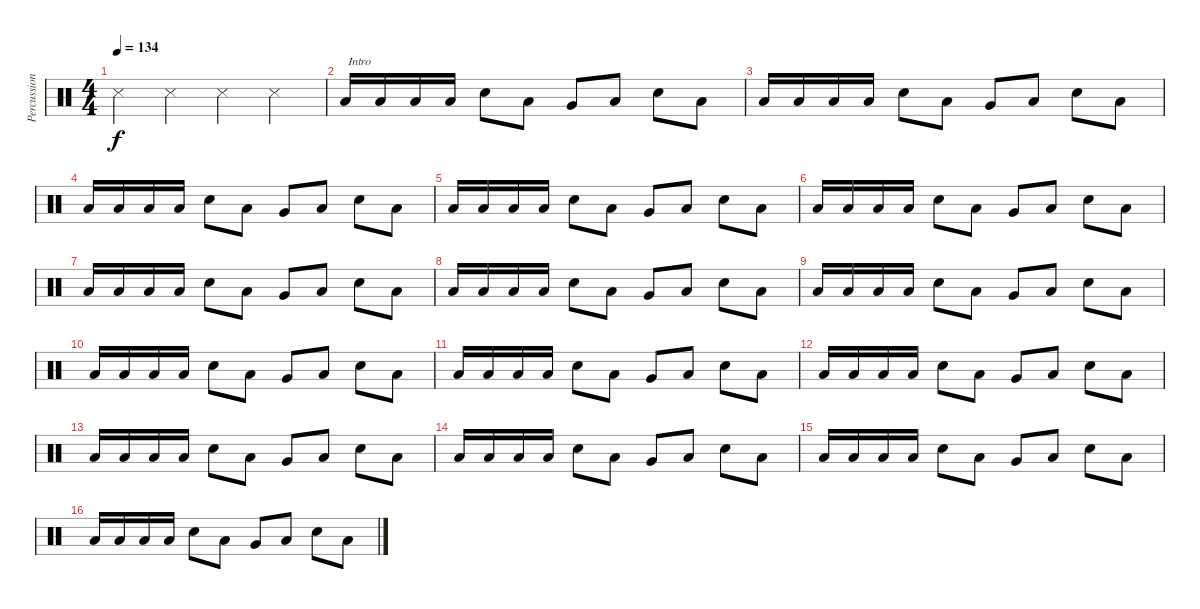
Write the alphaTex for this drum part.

\track ("Percussions" "Percussion") {instrument percussion}
\staff {score}
\articulation defaults
\ts (4 4)
\tempo 134
\clef neutral
\ks c "Metronome (hit)".4{dy f} "Metronome (hit)".4 "Metronome (hit)".4 "Metronome (hit)".4
|
"Low Floor Tom (hit)".16{txt " Intro"} "Low Floor Tom (hit)".16 "Low Floor Tom (hit)".16 "Low Floor Tom (hit)".16 "Electric Snare (hit)".8 "Low Floor Tom (hit)".8 "Very Low Tom (hit)".8 "Low Floor Tom (hit)".8 "Electric Snare (hit)".8 "Low Floor Tom (hit)".8 |
"Low Floor Tom (hit)".16 "Low Floor Tom (hit)".16 "Low Floor Tom (hit)".16 "Low Floor Tom (hit)".16 "Electric Snare (hit)".8 "Low Floor Tom (hit)".8 "Very Low Tom (hit)".8 "Low Floor Tom (hit)".8 "Electric Snare (hit)".8 "Low Floor Tom (hit)".8 |
"Low Floor Tom (hit)".16 "Low Floor Tom (hit)".16 "Low Floor Tom (hit)".16 "Low Floor Tom (hit)".16 "Electric Snare (hit)".8 "Low Floor Tom (hit)".8 "Very Low Tom (hit)".8 "Low Floor Tom (hit)".8 "Electric Snare (hit)".8 "Low Floor Tom (hit)".8 |
"Low Floor Tom (hit)".16 "Low Floor Tom (hit)".16 "Low Floor Tom (hit)".16 "Low Floor Tom (hit)".16 "Electric Snare (hit)".8 "Low Floor Tom (hit)".8 "Very Low Tom (hit)".8 "Low Floor Tom (hit)".8 "Electric Snare (hit)".8 "Low Floor Tom (hit)".8 |
"Low Floor Tom (hit)".16 "Low Floor Tom (hit)".16 "Low Floor Tom (hit)".16 "Low Floor Tom (hit)".16 "Electric Snare (hit)".8 "Low Floor Tom (hit)".8 "Very Low Tom (hit)".8 "Low Floor Tom (hit)".8 "Electric Snare (hit)".8 "Low Floor Tom (hit)".8 |
"Low Floor Tom (hit)".16 "Low Floor Tom (hit)".16 "Low Floor Tom (hit)".16 "Low Floor Tom (hit)".16 "Electric Snare (hit)".8 "Low Floor Tom (hit)".8 "Very Low Tom (hit)".8 "Low Floor Tom (hit)".8 "Electric Snare (hit)".8 "Low Floor Tom (hit)".8 |
"Low Floor Tom (hit)".16 "Low Floor Tom (hit)".16 "Low Floor Tom (hit)".16 "Low Floor Tom (hit)".16 "Electric Snare (hit)".8 "Low Floor Tom (hit)".8 "Very Low Tom (hit)".8 "Low Floor Tom (hit)".8 "Electric Snare (hit)".8 "Low Floor Tom (hit)".8 |
"Low Floor Tom (hit)".16 "Low Floor Tom (hit)".16 "Low Floor Tom (hit)".16 "Low Floor Tom (hit)".16 "Electric Snare (hit)".8 "Low Floor Tom (hit)".8 "Very Low Tom (hit)".8 "Low Floor Tom (hit)".8 "Electric Snare (hit)".8 "Low Floor Tom (hit)".8 |
"Low Floor Tom (hit)".16 "Low Floor Tom (hit)".16 "Low Floor Tom (hit)".16 "Low Floor Tom (hit)".16 "Electric Snare (hit)".8 "Low Floor Tom (hit)".8 "Very Low Tom (hit)".8 "Low Floor Tom (hit)".8 "Electric Snare (hit)".8 "Low Floor Tom (hit)".8 |
"Low Floor Tom (hit)".16 "Low Floor Tom (hit)".16 "Low Floor Tom (hit)".16 "Low Floor Tom (hit)".16 "Electric Snare (hit)".8 "Low Floor Tom (hit)".8 "Very Low Tom (hit)".8 "Low Floor Tom (hit)".8 "Electric Snare (hit)".8 "Low Floor Tom (hit)".8 |
"Low Floor Tom (hit)".16 "Low Floor Tom (hit)".16 "Low Floor Tom (hit)".16 "Low Floor Tom (hit)".16 "Electric Snare (hit)".8 "Low Floor Tom (hit)".8 "Very Low Tom (hit)".8 "Low Floor Tom (hit)".8 "Electric Snare (hit)".8 "Low Floor Tom (hit)".8 |
"Low Floor Tom (hit)".16 "Low Floor Tom (hit)".16 "Low Floor Tom (hit)".16 "Low Floor Tom (hit)".16 "Electric Snare (hit)".8 "Low Floor Tom (hit)".8 "Very Low Tom (hit)".8 "Low Floor Tom (hit)".8 "Electric Snare (hit)".8 "Low Floor Tom (hit)".8 |
"Low Floor Tom (hit)".16 "Low Floor Tom (hit)".16 "Low Floor Tom (hit)".16 "Low Floor Tom (hit)".16 "Electric Snare (hit)".8 "Low Floor Tom (hit)".8 "Very Low Tom (hit)".8 "Low Floor Tom (hit)".8 "Electric Snare (hit)".8 "Low Floor Tom (hit)".8 |
"Low Floor Tom (hit)".16 "Low Floor Tom (hit)".16 "Low Floor Tom (hit)".16 "Low Floor Tom (hit)".16 "Electric Snare (hit)".8 "Low Floor Tom (hit)".8 "Very Low Tom (hit)".8 "Low Floor Tom (hit)".8 "Electric Snare (hit)".8 "Low Floor Tom (hit)".8 |
"Low Floor Tom (hit)".16 "Low Floor Tom (hit)".16 "Low Floor Tom (hit)".16 "Low Floor Tom (hit)".16 "Electric Snare (hit)".8 "Low Floor Tom (hit)".8 "Very Low Tom (hit)".8 "Low Floor Tom (hit)".8 "Electric Snare (hit)".8 "Low Floor Tom (hit)".8
